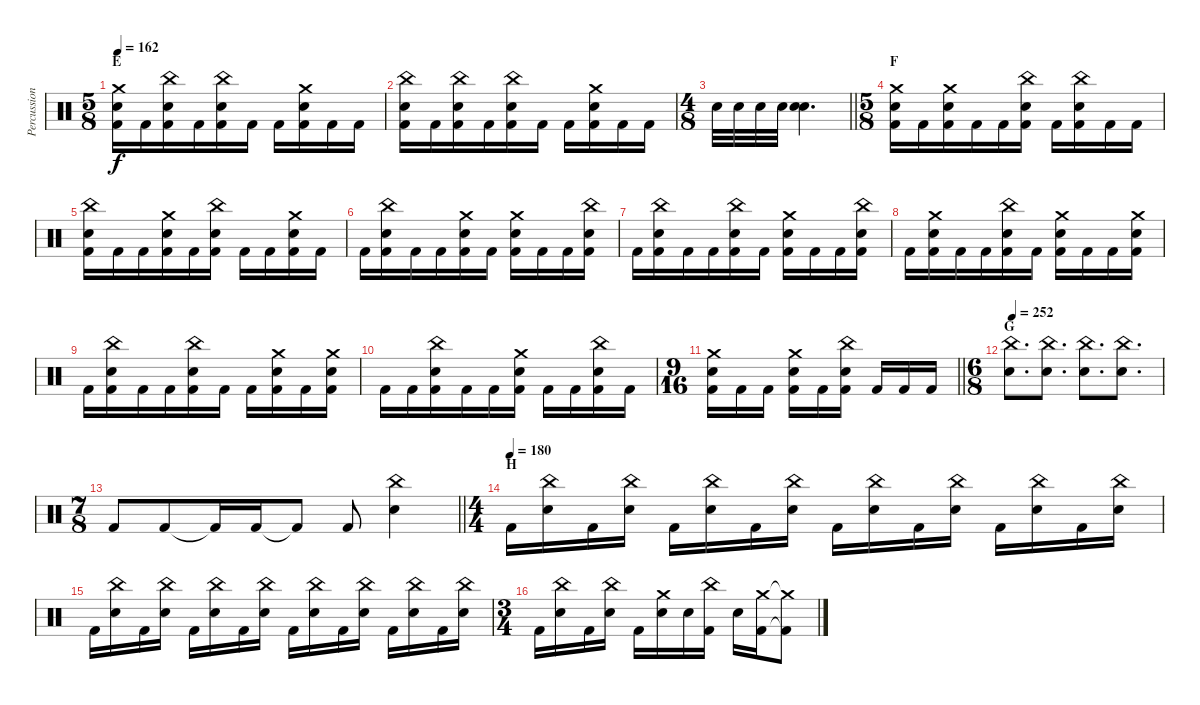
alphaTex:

\track ("Percussion" "Percussion") {instrument percussion}
\staff {score}
\articulation defaults
\ts (5 8)
\section ("" "E")
\tempo 162
\clef neutral
\ks c
("Crash medium (hit)" "Electric Snare (hit)" "Kick (hit) 2").16{dy f} "Kick (hit) 2".16 ("China (hit)" "Electric Snare (hit)" "Kick (hit) 2").16 "Kick (hit) 2".16 ("China (hit)" "Electric Snare (hit)" "Kick (hit) 2").16 "Kick (hit) 2".16 "Kick (hit) 2".16 ("Crash medium (hit)" "Electric Snare (hit)" "Kick (hit) 2").16 "Kick (hit) 2".16 "Kick (hit) 2".16 |
("China (hit)" "Electric Snare (hit)" "Kick (hit) 2").16 "Kick (hit) 2".16 ("China (hit)" "Electric Snare (hit)" "Kick (hit) 2").16 "Kick (hit) 2".16 ("China (hit)" "Electric Snare (hit)" "Kick (hit) 2").16 "Kick (hit) 2".16 "Kick (hit) 2".16 ("Crash medium (hit)" "Electric Snare (hit)" "Kick (hit) 2").16 "Kick (hit) 2".16 "Kick (hit) 2".16 |
\ts (4 8)
\barLineRight lightlight "Electric Snare (hit)".32 "Electric Snare (hit)".32 "Electric Snare (hit)".32 "Electric Snare (hit)".32
("Electric Snare (hit)" "Electric Snare (hit)").4{d} |
\ts (5 8)
\section ("" "F")
("Crash medium (hit)" "Electric Snare (hit)" "Kick (hit) 2").16 "Kick (hit) 2".16 ("Crash medium (hit)" "Electric Snare (hit)" "Kick (hit) 2").16 "Kick (hit) 2".16 "Kick (hit) 2".16 ("China (hit)" "Electric Snare (hit)" "Kick (hit) 2").16 "Kick (hit) 2".16 ("China (hit)" "Electric Snare (hit)" "Kick (hit) 2").16 "Kick (hit) 2".16 "Kick (hit) 2".16 |
("China (hit)" "Electric Snare (hit)" "Kick (hit) 2").16 "Kick (hit) 2".16 "Kick (hit) 2".16 ("Crash medium (hit)" "Electric Snare (hit)" "Kick (hit) 2").16 "Kick (hit) 2".16 ("China (hit)" "Electric Snare (hit)" "Kick (hit) 2").16 "Kick (hit) 2".16 "Kick (hit) 2".16 ("Crash medium (hit)" "Electric Snare (hit)" "Kick (hit) 2").16 "Kick (hit) 2".16 |
"Kick (hit) 2".16 ("China (hit)" "Electric Snare (hit)" "Kick (hit) 2").16 "Kick (hit) 2".16 "Kick (hit) 2".16 ("Crash medium (hit)" "Electric Snare (hit)" "Kick (hit) 2").16 "Kick (hit) 2".16 ("Crash medium (hit)" "Electric Snare (hit)" "Kick (hit) 2").16 "Kick (hit) 2".16 "Kick (hit) 2".16 ("China (hit)" "Electric Snare (hit)" "Kick (hit) 2").16 |
"Kick (hit) 2".16 ("China (hit)" "Electric Snare (hit)" "Kick (hit) 2").16 "Kick (hit) 2".16 "Kick (hit) 2".16 ("China (hit)" "Electric Snare (hit)" "Kick (hit) 2").16 "Kick (hit) 2".16 ("Crash medium (hit)" "Electric Snare (hit)" "Kick (hit) 2").16 "Kick (hit) 2".16 "Kick (hit) 2".16 ("China (hit)" "Electric Snare (hit)" "Kick (hit) 2").16 |
"Kick (hit) 2".16 ("Crash medium (hit)" "Electric Snare (hit)" "Kick (hit) 2").16 "Kick (hit) 2".16 "Kick (hit) 2".16 ("China (hit)" "Electric Snare (hit)" "Kick (hit) 2").16 "Kick (hit) 2".16 ("Crash medium (hit)" "Electric Snare (hit)" "Kick (hit) 2").16 "Kick (hit) 2".16 "Kick (hit) 2".16 ("Crash medium (hit)" "Electric Snare (hit)" "Kick (hit) 2").16 |
"Kick (hit) 2".16 ("China (hit)" "Electric Snare (hit)" "Kick (hit) 2").16 "Kick (hit) 2".16 "Kick (hit) 2".16 ("China (hit)" "Electric Snare (hit)" "Kick (hit) 2").16 "Kick (hit) 2".16 "Kick (hit) 2".16 ("Crash medium (hit)" "Electric Snare (hit)" "Kick (hit) 2").16 "Kick (hit) 2".16 ("Crash medium (hit)" "Electric Snare (hit)" "Kick (hit) 2").16 |
"Kick (hit) 2".16 "Kick (hit) 2".16 ("China (hit)" "Electric Snare (hit)" "Kick (hit) 2").16 "Kick (hit) 2".16 "Kick (hit) 2".16 ("Crash medium (hit)" "Electric Snare (hit)" "Kick (hit) 2").16 "Kick (hit) 2".16 "Kick (hit) 2".16 ("China (hit)" "Electric Snare (hit)" "Kick (hit) 2").16 "Kick (hit) 2".16 |
\ts (9 16)
\barLineRight lightlight
("Crash medium (hit)" "Electric Snare (hit)" "Kick (hit) 2").16 "Kick (hit) 2".16 "Kick (hit) 2".16 ("Crash medium (hit)" "Electric Snare (hit)" "Kick (hit) 2").16 "Kick (hit) 2".16 ("China (hit)" "Electric Snare (hit)" "Kick (hit) 2").16 "Kick (hit) 2".16 "Kick (hit) 2".16 "Kick (hit) 2".16 |
\ts (6 8)
\section ("" "G")
\tempo 252
("China (hit)" "Electric Snare (hit)").8{d} ("China (hit)" "Electric Snare (hit)").8{d} ("China (hit)" "Electric Snare (hit)").8{d} ("China (hit)" "Electric Snare (hit)").8{d} |
\ts (7 8)
\barLineRight lightlight "Kick (hit) 2".8 "Kick (hit) 2".8 "Kick (hit) 2"{t}.16 "Kick (hit) 2".16 "Kick (hit) 2"{t}.8 "Kick (hit) 2".8
("China (hit)" "Electric Snare (hit)").4 |
\ts (4 4)
\section ("" "H")
\tempo (180)
"Kick (hit) 2".16 ("China (hit)" "Electric Snare (hit)").16 "Kick (hit) 2".16 ("China (hit)" "Electric Snare (hit)").16 "Kick (hit) 2".16 ("China (hit)" "Electric Snare (hit)").16 "Kick (hit) 2".16 ("China (hit)" "Electric Snare (hit)").16 "Kick (hit) 2".16 ("China (hit)" "Electric Snare (hit)").16 "Kick (hit) 2".16 ("China (hit)" "Electric Snare (hit)").16 "Kick (hit) 2".16 ("China (hit)" "Electric Snare (hit)").16 "Kick (hit) 2".16 ("China (hit)" "Electric Snare (hit)").16 |
"Kick (hit) 2".16 ("China (hit)" "Electric Snare (hit)").16 "Kick (hit) 2".16 ("China (hit)" "Electric Snare (hit)").16 "Kick (hit) 2".16 ("China (hit)" "Electric Snare (hit)").16 "Kick (hit) 2".16 ("China (hit)" "Electric Snare (hit)").16 "Kick (hit) 2".16 ("China (hit)" "Electric Snare (hit)").16 "Kick (hit) 2".16 ("China (hit)" "Electric Snare (hit)").16 "Kick (hit) 2".16 ("China (hit)" "Electric Snare (hit)").16 "Kick (hit) 2".16 ("China (hit)" "Electric Snare (hit)").16 |
\ts (3 4)
"Kick (hit) 2".16 ("China (hit)" "Electric Snare (hit)").16 "Kick (hit) 2".16 ("China (hit)" "Electric Snare (hit)").16 "Kick (hit) 2".16 ("Crash medium (hit)" "Electric Snare (hit)").16 "Electric Snare (hit)".16 ("China (hit)" "Kick (hit) 2").16 "Electric Snare (hit)".16 ("Crash medium (hit)" "Kick (hit) 2").16 ("Crash medium (hit)"{t} "Kick (hit) 2"{t}).8
